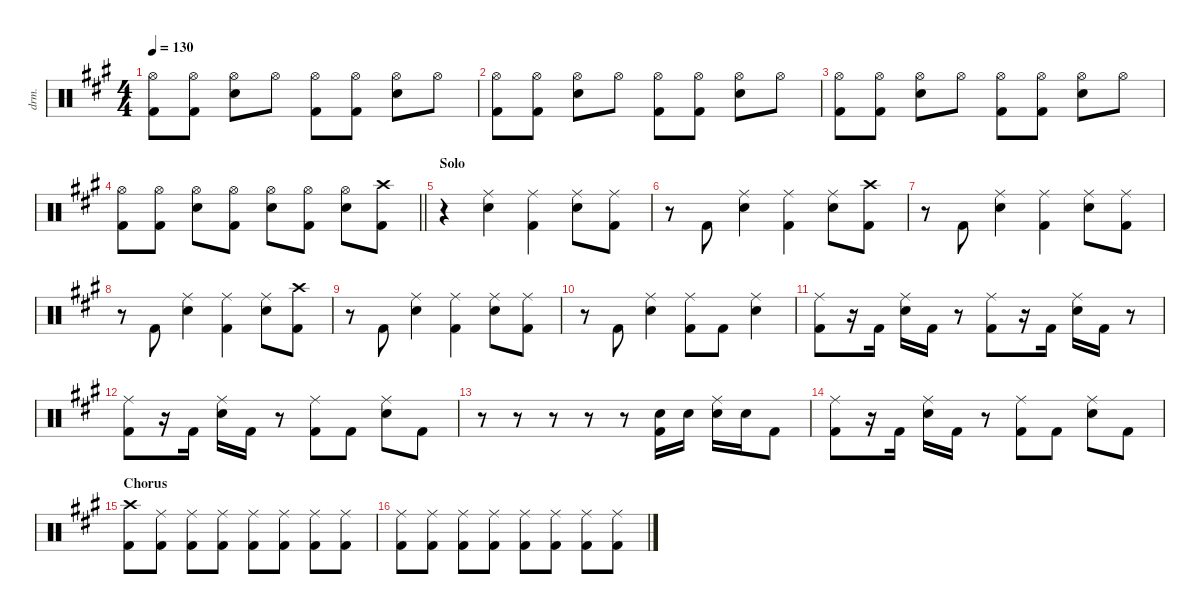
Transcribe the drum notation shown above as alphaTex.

\defaultSystemsLayout 4
\hideDynamics
\bracketExtendMode nobrackets
\track ("Drums" "drm.") {instrument percussion}
\staff {score}
\articulation defaults
\ts (4 4)
\tempo 130
\clef neutral
\ks a
("Hi-Hat (open)"{acc forcenatural} "Kick (hit) 2"{acc forcenatural}).8{dy f beam Down} ("Hi-Hat (open)"{acc forcenatural} "Kick (hit) 2"{acc forcenatural}).8{beam Down} ("Hi-Hat (open)"{acc forcenatural} "Snare (hit) 2"{acc forcenatural}).8{beam Down} "Hi-Hat (open)"{acc forcenatural}.8{beam Down} ("Hi-Hat (open)"{acc forcenatural} "Kick (hit) 2"{acc forcenatural}).8{beam Down} ("Hi-Hat (open)"{acc forcenatural} "Kick (hit) 2"{acc forcenatural}).8{beam Down} ("Hi-Hat (open)"{acc forcenatural} "Snare (hit) 2"{acc forcenatural}).8{beam Down} "Hi-Hat (open)"{acc forcenatural}.8{beam Down} |
("Hi-Hat (open)"{acc forcenatural} "Kick (hit) 2"{acc forcenatural}).8{beam Down} ("Hi-Hat (open)"{acc forcenatural} "Kick (hit) 2"{acc forcenatural}).8{beam Down} ("Hi-Hat (open)"{acc forcenatural} "Snare (hit) 2"{acc forcenatural}).8{beam Down} "Hi-Hat (open)"{acc forcenatural}.8{beam Down} ("Hi-Hat (open)"{acc forcenatural} "Kick (hit) 2"{acc forcenatural}).8{beam Down} ("Hi-Hat (open)"{acc forcenatural} "Kick (hit) 2"{acc forcenatural}).8{beam Down} ("Hi-Hat (open)"{acc forcenatural} "Snare (hit) 2"{acc forcenatural}).8{beam Down} "Hi-Hat (open)"{acc forcenatural}.8{beam Down} |
("Hi-Hat (open)"{acc forcenatural} "Kick (hit) 2"{acc forcenatural}).8{beam Down} ("Hi-Hat (open)"{acc forcenatural} "Kick (hit) 2"{acc forcenatural}).8{beam Down} ("Hi-Hat (open)"{acc forcenatural} "Snare (hit) 2"{acc forcenatural}).8{beam Down} "Hi-Hat (open)"{acc forcenatural}.8{beam Down} ("Hi-Hat (open)"{acc forcenatural} "Kick (hit) 2"{acc forcenatural}).8{beam Down} ("Hi-Hat (open)"{acc forcenatural} "Kick (hit) 2"{acc forcenatural}).8{beam Down} ("Hi-Hat (open)"{acc forcenatural} "Snare (hit) 2"{acc forcenatural}).8{beam Down} "Hi-Hat (open)"{acc forcenatural}.8{beam Down} |
\barLineRight lightlight
("Hi-Hat (open)"{acc forcenatural} "Kick (hit) 2"{acc forcenatural}).8{beam Down} ("Hi-Hat (open)"{acc forcenatural} "Kick (hit) 2"{acc forcenatural}).8{beam Down} ("Hi-Hat (open)"{acc forcenatural} "Snare (hit) 2"{acc forcenatural}).8{beam Down} ("Hi-Hat (open)"{acc forcenatural} "Kick (hit) 2"{acc forcenatural}).8{beam Down} ("Hi-Hat (open)"{acc forcenatural} "Snare (hit) 2"{acc forcenatural}).8{beam Down} ("Hi-Hat (open)"{acc forcenatural} "Kick (hit) 2"{acc forcenatural}).8{beam Down} ("Hi-Hat (open)"{acc forcenatural} "Snare (hit) 2"{acc forcenatural}).8{beam Down} ("Crash high (hit)"{acc forcenatural} "Kick (hit) 2"{acc forcenatural}).8{beam Down} |
\section ("" "Solo")
r.4{beam Down} ("Ride (middle)"{acc forcenatural} "Snare (hit) 2"{acc forcenatural}).4{beam Down} ("Ride (middle)"{acc forcenatural} "Kick (hit) 2"{acc forcenatural}).4{beam Down} ("Ride (middle)"{acc forcenatural} "Snare (hit) 2"{acc forcenatural}).8{beam Down} ("Ride (middle)"{acc forcenatural} "Kick (hit) 2"{acc forcenatural}).8{beam Down} |
r.8{beam Down} "Kick (hit) 2"{acc forcenatural}.8{beam Up} ("Ride (middle)"{acc forcenatural} "Snare (hit) 2"{acc forcenatural}).4{beam Down} ("Ride (middle)"{acc forcenatural} "Kick (hit) 2"{acc forcenatural}).4{beam Down} ("Ride (middle)"{acc forcenatural} "Snare (hit) 2"{acc forcenatural}).8{beam Down} ("Crash high (hit)"{acc forcenatural} "Kick (hit) 2"{acc forcenatural}).8{beam Down} |
r.8{beam Down} "Kick (hit) 2"{acc forcenatural}.8{beam Up} ("Ride (middle)"{acc forcenatural} "Snare (hit) 2"{acc forcenatural}).4{beam Down} ("Ride (middle)"{acc forcenatural} "Kick (hit) 2"{acc forcenatural}).4{beam Down} ("Ride (middle)"{acc forcenatural} "Snare (hit) 2"{acc forcenatural}).8{beam Down} ("Ride (middle)"{acc forcenatural} "Kick (hit) 2"{acc forcenatural}).8{beam Down} |
r.8{beam Down} "Kick (hit) 2"{acc forcenatural}.8{beam Up} ("Ride (middle)"{acc forcenatural} "Snare (hit) 2"{acc forcenatural}).4{beam Down} ("Ride (middle)"{acc forcenatural} "Kick (hit) 2"{acc forcenatural}).4{beam Down} ("Ride (middle)"{acc forcenatural} "Snare (hit) 2"{acc forcenatural}).8{beam Down} ("Crash high (hit)"{acc forcenatural} "Kick (hit) 2"{acc forcenatural}).8{beam Down} |
r.8{beam Down} "Kick (hit) 2"{acc forcenatural}.8{beam Up} ("Ride (middle)"{acc forcenatural} "Snare (hit) 2"{acc forcenatural}).4{beam Down} ("Ride (middle)"{acc forcenatural} "Kick (hit) 2"{acc forcenatural}).4{beam Down} ("Ride (middle)"{acc forcenatural} "Snare (hit) 2"{acc forcenatural}).8{beam Down} ("Ride (middle)"{acc forcenatural} "Kick (hit) 2"{acc forcenatural}).8{beam Down} |
r.8{beam Down} "Kick (hit) 2"{acc forcenatural}.8{beam Up} ("Ride (middle)"{acc forcenatural} "Snare (hit) 2"{acc forcenatural}).4{beam Down} ("Ride (middle)"{acc forcenatural} "Kick (hit) 2"{acc forcenatural}).8{beam Down} "Kick (hit) 2"{acc forcenatural}.8{beam Down} ("Ride (middle)"{acc forcenatural} "Snare (hit) 2"{acc forcenatural}).4{beam Down} |
("Ride (middle)"{acc forcenatural} "Kick (hit) 2"{acc forcenatural}).8{beam Down} r.16{beam Down} "Kick (hit) 2"{acc forcenatural}.16{beam Down} ("Ride (middle)"{acc forcenatural} "Snare (hit) 2"{acc forcenatural}).16{beam Down} "Kick (hit) 2"{acc forcenatural}.16{beam Down} r.8{beam Down} ("Ride (middle)"{acc forcenatural} "Kick (hit) 2"{acc forcenatural}).8{beam Down} r.16{beam Down} "Kick (hit) 2"{acc forcenatural}.16{beam Down} ("Ride (middle)"{acc forcenatural} "Snare (hit) 2"{acc forcenatural}).16{beam Down} "Kick (hit) 2"{acc forcenatural}.16{beam Down} r.8{beam Down} |
("Ride (middle)"{acc forcenatural} "Kick (hit) 2"{acc forcenatural}).8{beam Down} r.16{beam Down} "Kick (hit) 2"{acc forcenatural}.16{beam Down} ("Ride (middle)"{acc forcenatural} "Snare (hit) 2"{acc forcenatural}).16{beam Down} "Kick (hit) 2"{acc forcenatural}.16{beam Down} r.8{beam Down} ("Ride (middle)"{acc forcenatural} "Kick (hit) 2"{acc forcenatural}).8{beam Down} "Kick (hit) 2"{acc forcenatural}.8{beam Down} ("Ride (middle)"{acc forcenatural} "Snare (hit) 2"{acc forcenatural}).8{beam Down} "Kick (hit) 2"{acc forcenatural}.8{beam Down} |
r.8{beam Down} r.8{beam Down} r.8{beam Down} r.8{beam Down} r.8{beam Down} ("Kick (hit) 2"{acc forcenatural} "Snare (hit) 2"{acc forcenatural}).16{beam Up} "Snare (hit) 2"{acc forcenatural}.16{beam Up} ("Ride (middle)"{acc forcenatural} "Snare (hit) 2"{acc forcenatural}).16{beam Down} "Snare (hit) 2"{acc forcenatural}.16{beam Down} "Kick (hit) 2"{acc forcenatural}.8{beam Down} |
("Ride (middle)"{acc forcenatural} "Kick (hit) 2"{acc forcenatural}).8{beam Down} r.16{beam Down} "Kick (hit) 2"{acc forcenatural}.16{beam Down} ("Ride (middle)"{acc forcenatural} "Snare (hit) 2"{acc forcenatural}).16{beam Down} "Kick (hit) 2"{acc forcenatural}.16{beam Down} r.8{beam Down} ("Ride (middle)"{acc forcenatural} "Kick (hit) 2"{acc forcenatural}).8{beam Down} "Kick (hit) 2"{acc forcenatural}.8{beam Down} ("Ride (middle)"{acc forcenatural} "Snare (hit) 2"{acc forcenatural}).8{beam Down} "Kick (hit) 2"{acc forcenatural}.8{beam Down} |
\section ("" "Chorus")
("Crash high (hit)"{acc forcenatural} "Kick (hit) 2"{acc forcenatural}).8{beam Down} ("Ride (middle)"{acc forcenatural} "Kick (hit) 2"{acc forcenatural}).8{beam Down} ("Ride (middle)"{acc forcenatural} "Kick (hit) 2"{acc forcenatural}).8{beam Down} ("Ride (middle)"{acc forcenatural} "Kick (hit) 2"{acc forcenatural}).8{beam Down} ("Ride (middle)"{acc forcenatural} "Kick (hit) 2"{acc forcenatural}).8{beam Down} ("Ride (middle)"{acc forcenatural} "Kick (hit) 2"{acc forcenatural}).8{beam Down} ("Ride (middle)"{acc forcenatural} "Kick (hit) 2"{acc forcenatural}).8{beam Down} ("Ride (middle)"{acc forcenatural} "Kick (hit) 2"{acc forcenatural}).8{beam Down} |
("Ride (middle)"{acc forcenatural} "Kick (hit) 2"{acc forcenatural}).8{beam Down} ("Ride (middle)"{acc forcenatural} "Kick (hit) 2"{acc forcenatural}).8{beam Down} ("Ride (middle)"{acc forcenatural} "Kick (hit) 2"{acc forcenatural}).8{beam Down} ("Ride (middle)"{acc forcenatural} "Kick (hit) 2"{acc forcenatural}).8{beam Down} ("Ride (middle)"{acc forcenatural} "Kick (hit) 2"{acc forcenatural}).8{beam Down} ("Ride (middle)"{acc forcenatural} "Kick (hit) 2"{acc forcenatural}).8{beam Down} ("Ride (middle)"{acc forcenatural} "Kick (hit) 2"{acc forcenatural}).8{beam Down} ("Ride (middle)"{acc forcenatural} "Kick (hit) 2"{acc forcenatural}).8{beam Down}
